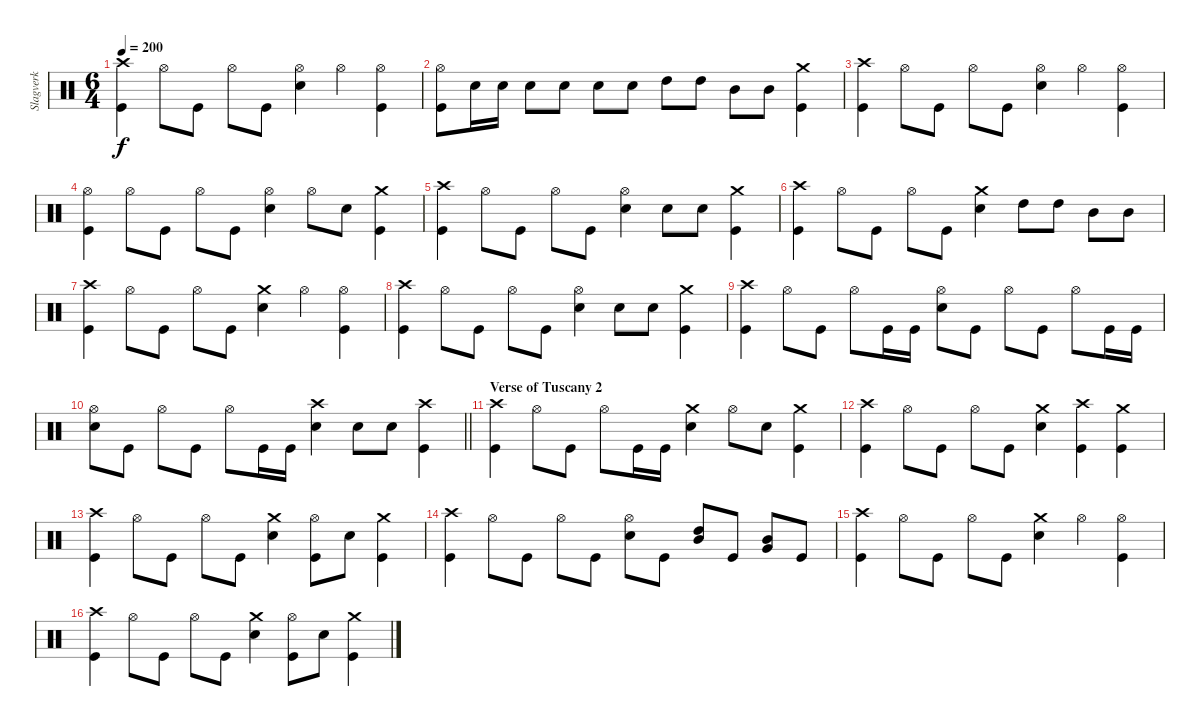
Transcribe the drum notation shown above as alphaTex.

\track ("Slagverk" "Slagverk") {instrument percussion}
\staff {score}
\articulation defaults
\ts (6 4)
\tempo 200
\clef neutral
\ks c
("Crash high (hit)" "Kick (hit)").4{dy f} "Hi-Hat (open)".8 "Kick (hit)".8 "Hi-Hat (open)".8 "Kick (hit)".8 ("Hi-Hat (open)" "Electric Snare (hit)").4 "Hi-Hat (open)".4 ("Hi-Hat (open)" "Kick (hit)").4 |
("Hi-Hat (open)" "Kick (hit)").8 "Electric Snare (hit)".16 "Electric Snare (hit)".16 "Electric Snare (hit)".8 "Electric Snare (hit)".8 "Electric Snare (hit)".8 "Electric Snare (hit)".8 "High Tom (hit)".8 "High Tom (hit)".8 "Mid Tom (hit)".8 "Mid Tom (hit)".8 ("Crash medium (hit)" "Kick (hit)").4 |
("Crash high (hit)" "Kick (hit)").4 "Hi-Hat (open)".8 "Kick (hit)".8 "Hi-Hat (open)".8 "Kick (hit)".8 ("Hi-Hat (open)" "Electric Snare (hit)").4 "Hi-Hat (open)".4 ("Hi-Hat (open)" "Kick (hit)").4 |
("Hi-Hat (open)" "Kick (hit)").4 "Hi-Hat (open)".8 "Kick (hit)".8 "Hi-Hat (open)".8 "Kick (hit)".8 ("Hi-Hat (open)" "Electric Snare (hit)").4 "Hi-Hat (open)".8 "Electric Snare (hit)".8 ("Crash medium (hit)" "Kick (hit)").4 |
("Crash high (hit)" "Kick (hit)").4 "Hi-Hat (open)".8 "Kick (hit)".8 "Hi-Hat (open)".8 "Kick (hit)".8 ("Hi-Hat (open)" "Electric Snare (hit)").4 "Electric Snare (hit)".8 "Electric Snare (hit)".8 ("Crash medium (hit)" "Kick (hit)").4 |
("Crash high (hit)" "Kick (hit)").4 "Hi-Hat (open)".8 "Kick (hit)".8 "Hi-Hat (open)".8 "Kick (hit)".8 ("Crash medium (hit)" "Electric Snare (hit)").4 "High Tom (hit)".8 "High Tom (hit)".8 "Mid Tom (hit)".8 "Mid Tom (hit)".8 |
("Crash high (hit)" "Kick (hit)").4 "Hi-Hat (open)".8 "Kick (hit)".8 "Hi-Hat (open)".8 "Kick (hit)".8 ("Crash medium (hit)" "Electric Snare (hit)").4 "Hi-Hat (open)".4 ("Hi-Hat (open)" "Kick (hit)").4 |
("Crash high (hit)" "Kick (hit)").4 "Hi-Hat (open)".8 "Kick (hit)".8 "Hi-Hat (open)".8 "Kick (hit)".8 ("Hi-Hat (open)" "Electric Snare (hit)").4 "Electric Snare (hit)".8 "Electric Snare (hit)".8 ("Crash medium (hit)" "Kick (hit)").4 |
("Crash high (hit)" "Kick (hit)").4 "Hi-Hat (open)".8 "Kick (hit)".8 "Hi-Hat (open)".8 "Kick (hit)".16 "Kick (hit)".16 ("Hi-Hat (open)" "Electric Snare (hit)").8 "Kick (hit)".8 "Hi-Hat (open)".8 "Kick (hit)".8 "Hi-Hat (open)".8 "Kick (hit)".16 "Kick (hit)".16 |
\barLineRight lightlight
("Hi-Hat (open)" "Electric Snare (hit)").8 "Kick (hit)".8 "Hi-Hat (open)".8 "Kick (hit)".8 "Hi-Hat (open)".8 "Kick (hit)".16 "Kick (hit)".16 ("Crash high (hit)" "Electric Snare (hit)").4 "Electric Snare (hit)".8 "Electric Snare (hit)".8 ("Crash high (hit)" "Kick (hit)").4 |
\section ("" "Verse of Tuscany 2")
("Crash high (hit)" "Kick (hit)").4 "Hi-Hat (open)".8 "Kick (hit)".8 "Hi-Hat (open)".8 "Kick (hit)".16 "Kick (hit)".16 ("Crash medium (hit)" "Electric Snare (hit)").4 "Hi-Hat (open)".8 "Electric Snare (hit)".8 ("Crash medium (hit)" "Kick (hit)").4 |
("Crash high (hit)" "Kick (hit)").4 "Hi-Hat (open)".8 "Kick (hit)".8 "Hi-Hat (open)".8 "Kick (hit)".8 ("Crash medium (hit)" "Electric Snare (hit)").4 ("Crash high (hit)" "Kick (hit)").4 ("Crash medium (hit)" "Kick (hit)").4 |
("Crash high (hit)" "Kick (hit)").4 "Hi-Hat (open)".8 "Kick (hit)".8 "Hi-Hat (open)".8 "Kick (hit)".8 ("Crash medium (hit)" "Electric Snare (hit)").4 ("Hi-Hat (open)" "Kick (hit)").8 "Electric Snare (hit)".8 ("Crash medium (hit)" "Kick (hit)").4 |
("Crash high (hit)" "Kick (hit)").4 "Hi-Hat (open)".8 "Kick (hit)".8 "Hi-Hat (open)".8 "Kick (hit)".8 ("Hi-Hat (open)" "Electric Snare (hit)").8 "Kick (hit)".8 ("Mid Tom (hit)" "High Tom (hit)").8 "Kick (hit)".8 ("Very Low Tom (hit)" "Mid Tom (hit)").8 "Kick (hit)".8 |
("Crash high (hit)" "Kick (hit)").4 "Hi-Hat (open)".8 "Kick (hit)".8 "Hi-Hat (open)".8 "Kick (hit)".8 ("Crash medium (hit)" "Electric Snare (hit)").4 "Hi-Hat (open)".4 ("Hi-Hat (open)" "Kick (hit)").4 |
("Crash high (hit)" "Kick (hit)").4 "Hi-Hat (open)".8 "Kick (hit)".8 "Hi-Hat (open)".8 "Kick (hit)".8 ("Crash medium (hit)" "Electric Snare (hit)").4 ("Hi-Hat (open)" "Kick (hit)").8 "Electric Snare (hit)".8 ("Crash medium (hit)" "Kick (hit)").4
